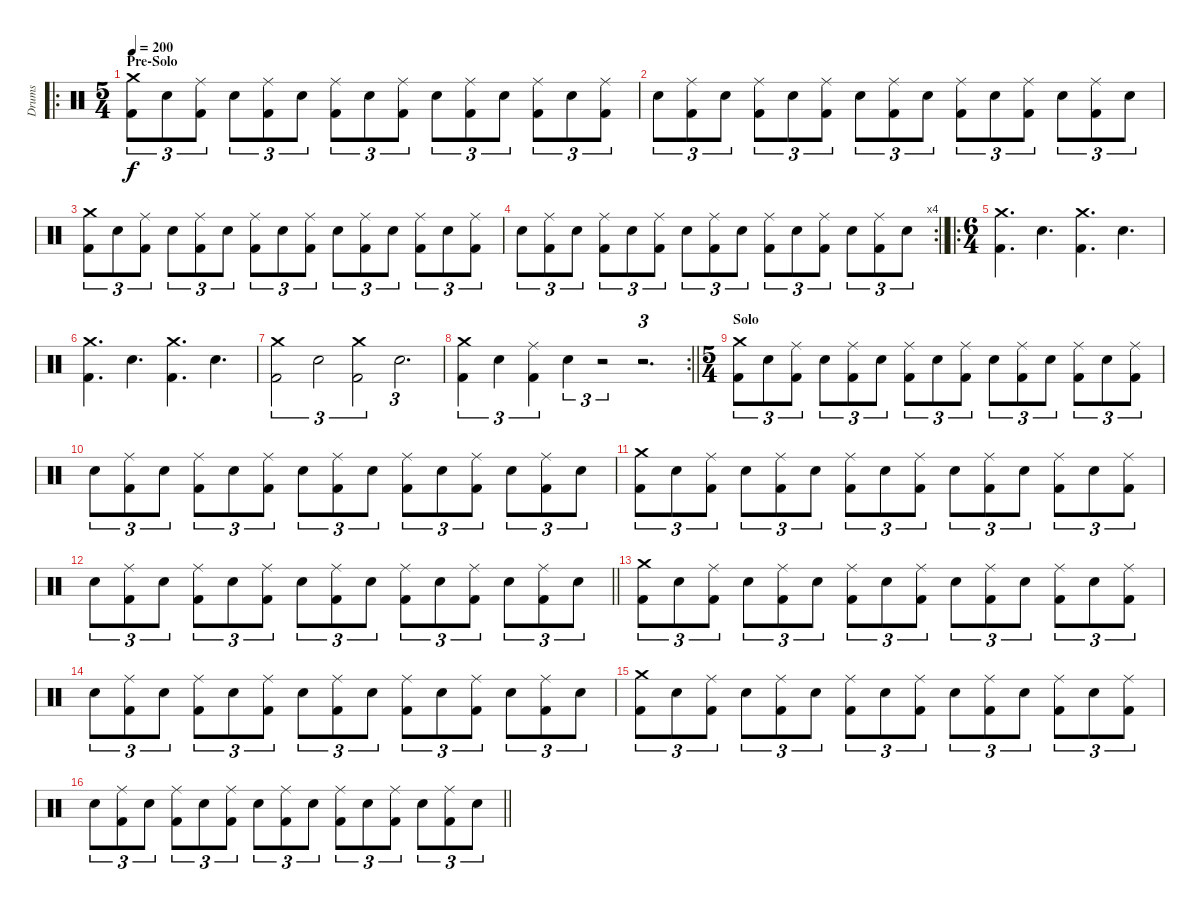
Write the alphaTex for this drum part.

\track ("Drums" "Drums") {instrument percussion}
\staff {score}
\articulation defaults
\ro
\ts (5 4)
\section ("" "Pre-Solo")
\tempo 200
\clef neutral
\ks c
("Crash medium (hit)" "Kick (hit) 2").8{tu (3 2) dy f} "Electric Snare (hit)".8{tu (3 2)} ("Ride (middle)" "Kick (hit) 2").8{tu (3 2)} "Electric Snare (hit)".8{tu (3 2)} ("Ride (middle)" "Kick (hit) 2").8{tu (3 2)} "Electric Snare (hit)".8{tu (3 2)} ("Ride (middle)" "Kick (hit) 2").8{tu (3 2)} "Electric Snare (hit)".8{tu (3 2)} ("Ride (middle)" "Kick (hit) 2").8{tu (3 2)} "Electric Snare (hit)".8{tu (3 2)} ("Ride (middle)" "Kick (hit) 2").8{tu (3 2)} "Electric Snare (hit)".8{tu (3 2)} ("Ride (middle)" "Kick (hit) 2").8{tu (3 2)} "Electric Snare (hit)".8{tu (3 2)} ("Ride (middle)" "Kick (hit) 2").8{tu (3 2)} |
"Electric Snare (hit)".8{tu (3 2)} ("Ride (middle)" "Kick (hit) 2").8{tu (3 2)} "Electric Snare (hit)".8{tu (3 2)} ("Ride (middle)" "Kick (hit) 2").8{tu (3 2)} "Electric Snare (hit)".8{tu (3 2)} ("Ride (middle)" "Kick (hit) 2").8{tu (3 2)} "Electric Snare (hit)".8{tu (3 2)} ("Ride (middle)" "Kick (hit) 2").8{tu (3 2)} "Electric Snare (hit)".8{tu (3 2)} ("Ride (middle)" "Kick (hit) 2").8{tu (3 2)} "Electric Snare (hit)".8{tu (3 2)} ("Ride (middle)" "Kick (hit) 2").8{tu (3 2)} "Electric Snare (hit)".8{tu (3 2)} ("Ride (middle)" "Kick (hit) 2").8{tu (3 2)} "Electric Snare (hit)".8{tu (3 2)} |
("Crash medium (hit)" "Kick (hit) 2").8{tu (3 2)} "Electric Snare (hit)".8{tu (3 2)} ("Ride (middle)" "Kick (hit) 2").8{tu (3 2)} "Electric Snare (hit)".8{tu (3 2)} ("Ride (middle)" "Kick (hit) 2").8{tu (3 2)} "Electric Snare (hit)".8{tu (3 2)} ("Ride (middle)" "Kick (hit) 2").8{tu (3 2)} "Electric Snare (hit)".8{tu (3 2)} ("Ride (middle)" "Kick (hit) 2").8{tu (3 2)} "Electric Snare (hit)".8{tu (3 2)} ("Ride (middle)" "Kick (hit) 2").8{tu (3 2)} "Electric Snare (hit)".8{tu (3 2)} ("Ride (middle)" "Kick (hit) 2").8{tu (3 2)} "Electric Snare (hit)".8{tu (3 2)} ("Ride (middle)" "Kick (hit) 2").8{tu (3 2)} |
\rc 4
\barLineRight lightlight "Electric Snare (hit)".8{tu (3 2)}
("Ride (middle)" "Kick (hit) 2").8{tu (3 2)} "Electric Snare (hit)".8{tu (3 2)} ("Ride (middle)" "Kick (hit) 2").8{tu (3 2)} "Electric Snare (hit)".8{tu (3 2)} ("Ride (middle)" "Kick (hit) 2").8{tu (3 2)} "Electric Snare (hit)".8{tu (3 2)} ("Ride (middle)" "Kick (hit) 2").8{tu (3 2)} "Electric Snare (hit)".8{tu (3 2)} ("Ride (middle)" "Kick (hit) 2").8{tu (3 2)} "Electric Snare (hit)".8{tu (3 2)} ("Ride (middle)" "Kick (hit) 2").8{tu (3 2)} "Electric Snare (hit)".8{tu (3 2)} ("Ride (middle)" "Kick (hit) 2").8{tu (3 2)} "Electric Snare (hit)".8{tu (3 2)} |
\ro
\ts (6 4)
("Crash medium (hit)" "Kick (hit) 2").4{d} "Electric Snare (hit)".4{d} ("Crash medium (hit)" "Kick (hit) 2").4{d} "Electric Snare (hit)".4{d} |
("Crash medium (hit)" "Kick (hit) 2").4{d} "Electric Snare (hit)".4{d} ("Crash medium (hit)" "Kick (hit) 2").4{d} "Electric Snare (hit)".4{d} |
("Crash medium (hit)" "Kick (hit) 2").2{tu (3 2)} "Electric Snare (hit)".2{tu (3 2)} ("Crash medium (hit)" "Kick (hit) 2").2{tu (3 2)} "Electric Snare (hit)".2{d tu (3 2)} |
\rc 2
\barLineRight lightlight
("Crash medium (hit)" "Kick (hit) 2").4{tu (3 2)} "Electric Snare (hit)".4{tu (3 2)} ("Ride (middle)" "Kick (hit) 2").4{tu (3 2)} "Electric Snare (hit)".4{tu (3 2)} r.2{tu (3 2)} r.2{d tu (3 2)} |
\ts (5 4)
\section ("" "Solo")
("Crash medium (hit)" "Kick (hit) 2").8{tu (3 2)} "Electric Snare (hit)".8{tu (3 2)} ("Ride (middle)" "Kick (hit) 2").8{tu (3 2)} "Electric Snare (hit)".8{tu (3 2)} ("Ride (middle)" "Kick (hit) 2").8{tu (3 2)} "Electric Snare (hit)".8{tu (3 2)} ("Ride (middle)" "Kick (hit) 2").8{tu (3 2)} "Electric Snare (hit)".8{tu (3 2)} ("Ride (middle)" "Kick (hit) 2").8{tu (3 2)} "Electric Snare (hit)".8{tu (3 2)} ("Ride (middle)" "Kick (hit) 2").8{tu (3 2)} "Electric Snare (hit)".8{tu (3 2)} ("Ride (middle)" "Kick (hit) 2").8{tu (3 2)} "Electric Snare (hit)".8{tu (3 2)} ("Ride (middle)" "Kick (hit) 2").8{tu (3 2)} |
"Electric Snare (hit)".8{tu (3 2)} ("Ride (middle)" "Kick (hit) 2").8{tu (3 2)} "Electric Snare (hit)".8{tu (3 2)} ("Ride (middle)" "Kick (hit) 2").8{tu (3 2)} "Electric Snare (hit)".8{tu (3 2)} ("Ride (middle)" "Kick (hit) 2").8{tu (3 2)} "Electric Snare (hit)".8{tu (3 2)} ("Ride (middle)" "Kick (hit) 2").8{tu (3 2)} "Electric Snare (hit)".8{tu (3 2)} ("Ride (middle)" "Kick (hit) 2").8{tu (3 2)} "Electric Snare (hit)".8{tu (3 2)} ("Ride (middle)" "Kick (hit) 2").8{tu (3 2)} "Electric Snare (hit)".8{tu (3 2)} ("Ride (middle)" "Kick (hit) 2").8{tu (3 2)} "Electric Snare (hit)".8{tu (3 2)} |
("Crash medium (hit)" "Kick (hit) 2").8{tu (3 2)} "Electric Snare (hit)".8{tu (3 2)} ("Ride (middle)" "Kick (hit) 2").8{tu (3 2)} "Electric Snare (hit)".8{tu (3 2)} ("Ride (middle)" "Kick (hit) 2").8{tu (3 2)} "Electric Snare (hit)".8{tu (3 2)} ("Ride (middle)" "Kick (hit) 2").8{tu (3 2)} "Electric Snare (hit)".8{tu (3 2)} ("Ride (middle)" "Kick (hit) 2").8{tu (3 2)} "Electric Snare (hit)".8{tu (3 2)} ("Ride (middle)" "Kick (hit) 2").8{tu (3 2)} "Electric Snare (hit)".8{tu (3 2)} ("Ride (middle)" "Kick (hit) 2").8{tu (3 2)} "Electric Snare (hit)".8{tu (3 2)} ("Ride (middle)" "Kick (hit) 2").8{tu (3 2)} |
\barLineRight lightlight "Electric Snare (hit)".8{tu (3 2)}
("Ride (middle)" "Kick (hit) 2").8{tu (3 2)} "Electric Snare (hit)".8{tu (3 2)} ("Ride (middle)" "Kick (hit) 2").8{tu (3 2)} "Electric Snare (hit)".8{tu (3 2)} ("Ride (middle)" "Kick (hit) 2").8{tu (3 2)} "Electric Snare (hit)".8{tu (3 2)} ("Ride (middle)" "Kick (hit) 2").8{tu (3 2)} "Electric Snare (hit)".8{tu (3 2)} ("Ride (middle)" "Kick (hit) 2").8{tu (3 2)} "Electric Snare (hit)".8{tu (3 2)} ("Ride (middle)" "Kick (hit) 2").8{tu (3 2)} "Electric Snare (hit)".8{tu (3 2)} ("Ride (middle)" "Kick (hit) 2").8{tu (3 2)} "Electric Snare (hit)".8{tu (3 2)} |
("Crash medium (hit)" "Kick (hit) 2").8{tu (3 2)} "Electric Snare (hit)".8{tu (3 2)} ("Ride (middle)" "Kick (hit) 2").8{tu (3 2)} "Electric Snare (hit)".8{tu (3 2)} ("Ride (middle)" "Kick (hit) 2").8{tu (3 2)} "Electric Snare (hit)".8{tu (3 2)} ("Ride (middle)" "Kick (hit) 2").8{tu (3 2)} "Electric Snare (hit)".8{tu (3 2)} ("Ride (middle)" "Kick (hit) 2").8{tu (3 2)} "Electric Snare (hit)".8{tu (3 2)} ("Ride (middle)" "Kick (hit) 2").8{tu (3 2)} "Electric Snare (hit)".8{tu (3 2)} ("Ride (middle)" "Kick (hit) 2").8{tu (3 2)} "Electric Snare (hit)".8{tu (3 2)} ("Ride (middle)" "Kick (hit) 2").8{tu (3 2)} |
"Electric Snare (hit)".8{tu (3 2)} ("Ride (middle)" "Kick (hit) 2").8{tu (3 2)} "Electric Snare (hit)".8{tu (3 2)} ("Ride (middle)" "Kick (hit) 2").8{tu (3 2)} "Electric Snare (hit)".8{tu (3 2)} ("Ride (middle)" "Kick (hit) 2").8{tu (3 2)} "Electric Snare (hit)".8{tu (3 2)} ("Ride (middle)" "Kick (hit) 2").8{tu (3 2)} "Electric Snare (hit)".8{tu (3 2)} ("Ride (middle)" "Kick (hit) 2").8{tu (3 2)} "Electric Snare (hit)".8{tu (3 2)} ("Ride (middle)" "Kick (hit) 2").8{tu (3 2)} "Electric Snare (hit)".8{tu (3 2)} ("Ride (middle)" "Kick (hit) 2").8{tu (3 2)} "Electric Snare (hit)".8{tu (3 2)} |
("Crash medium (hit)" "Kick (hit) 2").8{tu (3 2)} "Electric Snare (hit)".8{tu (3 2)} ("Ride (middle)" "Kick (hit) 2").8{tu (3 2)} "Electric Snare (hit)".8{tu (3 2)} ("Ride (middle)" "Kick (hit) 2").8{tu (3 2)} "Electric Snare (hit)".8{tu (3 2)} ("Ride (middle)" "Kick (hit) 2").8{tu (3 2)} "Electric Snare (hit)".8{tu (3 2)} ("Ride (middle)" "Kick (hit) 2").8{tu (3 2)} "Electric Snare (hit)".8{tu (3 2)} ("Ride (middle)" "Kick (hit) 2").8{tu (3 2)} "Electric Snare (hit)".8{tu (3 2)} ("Ride (middle)" "Kick (hit) 2").8{tu (3 2)} "Electric Snare (hit)".8{tu (3 2)} ("Ride (middle)" "Kick (hit) 2").8{tu (3 2)} |
\barLineRight lightlight "Electric Snare (hit)".8{tu (3 2)}
("Ride (middle)" "Kick (hit) 2").8{tu (3 2)} "Electric Snare (hit)".8{tu (3 2)} ("Ride (middle)" "Kick (hit) 2").8{tu (3 2)} "Electric Snare (hit)".8{tu (3 2)} ("Ride (middle)" "Kick (hit) 2").8{tu (3 2)} "Electric Snare (hit)".8{tu (3 2)} ("Ride (middle)" "Kick (hit) 2").8{tu (3 2)} "Electric Snare (hit)".8{tu (3 2)} ("Ride (middle)" "Kick (hit) 2").8{tu (3 2)} "Electric Snare (hit)".8{tu (3 2)} ("Ride (middle)" "Kick (hit) 2").8{tu (3 2)} "Electric Snare (hit)".8{tu (3 2)} ("Ride (middle)" "Kick (hit) 2").8{tu (3 2)} "Electric Snare (hit)".8{tu (3 2)}
